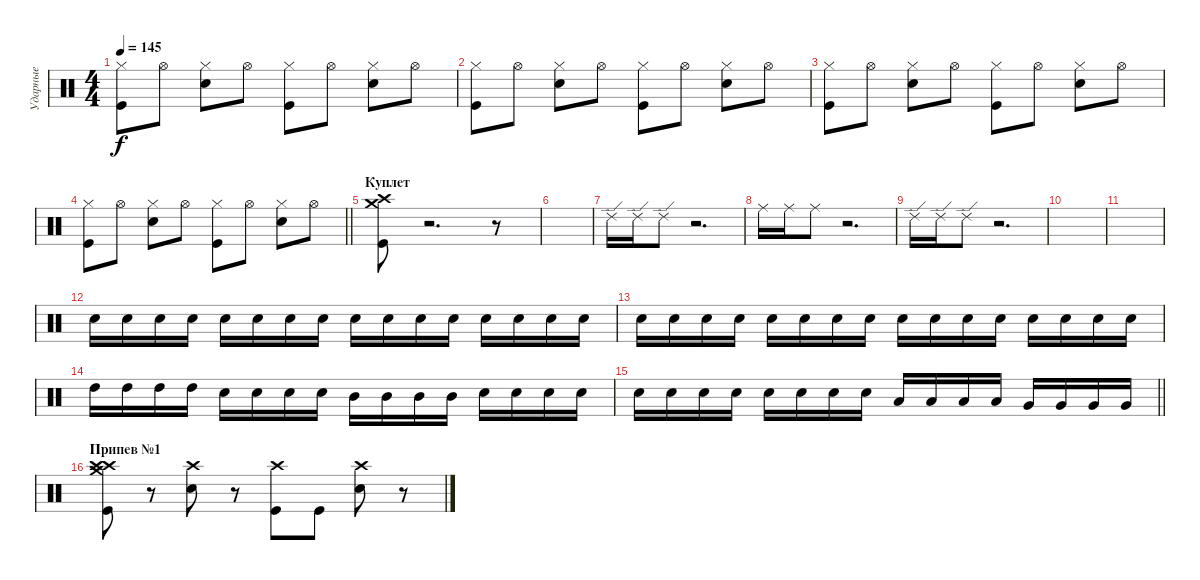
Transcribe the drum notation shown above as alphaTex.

\track ("Ударные" "Ударные") {instrument percussion}
\staff {score}
\articulation defaults
\ts (4 4)
\tempo 145
\clef neutral
\ks c
("Kick (hit)" "Hi-Hat (closed)").8{dy f} "Hi-Hat (open)".8 ("Electric Snare (hit)" "Hi-Hat (closed)").8 "Hi-Hat (open)".8 ("Kick (hit)" "Hi-Hat (closed)").8 "Hi-Hat (open)".8 ("Electric Snare (hit)" "Hi-Hat (closed)").8 "Hi-Hat (open)".8 |
("Kick (hit)" "Hi-Hat (closed)").8 "Hi-Hat (open)".8 ("Electric Snare (hit)" "Hi-Hat (closed)").8 "Hi-Hat (open)".8 ("Kick (hit)" "Hi-Hat (closed)").8 "Hi-Hat (open)".8 ("Electric Snare (hit)" "Hi-Hat (closed)").8 "Hi-Hat (open)".8 |
("Kick (hit)" "Hi-Hat (closed)").8 "Hi-Hat (open)".8 ("Electric Snare (hit)" "Hi-Hat (closed)").8 "Hi-Hat (open)".8 ("Kick (hit)" "Hi-Hat (closed)").8 "Hi-Hat (open)".8 ("Electric Snare (hit)" "Hi-Hat (closed)").8 "Hi-Hat (open)".8 |
\barLineRight lightlight
("Kick (hit)" "Hi-Hat (closed)").8 "Hi-Hat (open)".8 ("Electric Snare (hit)" "Hi-Hat (closed)").8 "Hi-Hat (open)".8 ("Kick (hit)" "Hi-Hat (closed)").8 "Hi-Hat (open)".8 ("Electric Snare (hit)" "Hi-Hat (closed)").8 "Hi-Hat (open)".8 |
\section ("" "Куплет")
("Crash high (hit)" "Kick (hit)" "Crash medium (hit)").8 r.2{d} r.8 |
|
"Ride (edge) 2".16 "Ride (edge) 2".16 "Ride (edge) 2".8 r.2{d} |
"Ride (middle)".16 "Ride (middle)".16 "Ride (middle)".8 r.2{d} |
"Ride (edge) 2".16 "Ride (edge) 2".16 "Ride (edge) 2".8 r.2{d} |
|
|
"Electric Snare (hit)".16 "Electric Snare (hit)".16 "Electric Snare (hit)".16 "Electric Snare (hit)".16 "Electric Snare (hit)".16 "Electric Snare (hit)".16 "Electric Snare (hit)".16 "Electric Snare (hit)".16 "Electric Snare (hit)".16 "Electric Snare (hit)".16 "Electric Snare (hit)".16 "Electric Snare (hit)".16 "Electric Snare (hit)".16 "Electric Snare (hit)".16 "Electric Snare (hit)".16 "Electric Snare (hit)".16 |
"Electric Snare (hit)".16 "Electric Snare (hit)".16 "Electric Snare (hit)".16 "Electric Snare (hit)".16 "Electric Snare (hit)".16 "Electric Snare (hit)".16 "Electric Snare (hit)".16 "Electric Snare (hit)".16 "Electric Snare (hit)".16 "Electric Snare (hit)".16 "Electric Snare (hit)".16 "Electric Snare (hit)".16 "Electric Snare (hit)".16 "Electric Snare (hit)".16 "Electric Snare (hit)".16 "Electric Snare (hit)".16 |
"High Tom (hit)".16 "High Tom (hit)".16 "High Tom (hit)".16 "High Tom (hit)".16 "Electric Snare (hit)".16 "Electric Snare (hit)".16 "Electric Snare (hit)".16 "Electric Snare (hit)".16 "Mid Tom (hit)".16 "Mid Tom (hit)".16 "Mid Tom (hit)".16 "Mid Tom (hit)".16 "Electric Snare (hit)".16 "Electric Snare (hit)".16 "Electric Snare (hit)".16 "Electric Snare (hit)".16 |
\barLineRight lightlight "Electric Snare (hit)".16 "Electric Snare (hit)".16 "Electric Snare (hit)".16 "Electric Snare (hit)".16 "Electric Snare (hit)".16 "Electric Snare (hit)".16 "Electric Snare (hit)".16 "Electric Snare (hit)".16 "Low Tom (hit)".16 "Low Tom (hit)".16 "Low Tom (hit)".16 "Low Tom (hit)".16 "Very Low Tom (hit)".16 "Very Low Tom (hit)".16 "Very Low Tom (hit)".16 "Very Low Tom (hit)".16
|
\section ("" "Припев №1")
("Kick (hit)" "Crash high (hit)" "Crash medium (hit)" "Crash high (hit)").8 r.8 ("Electric Snare (hit)" "Crash high (hit)").8 r.8 ("Kick (hit)" "Crash high (hit)").8 "Kick (hit)".8 ("Electric Snare (hit)" "Crash high (hit)").8 r.8
